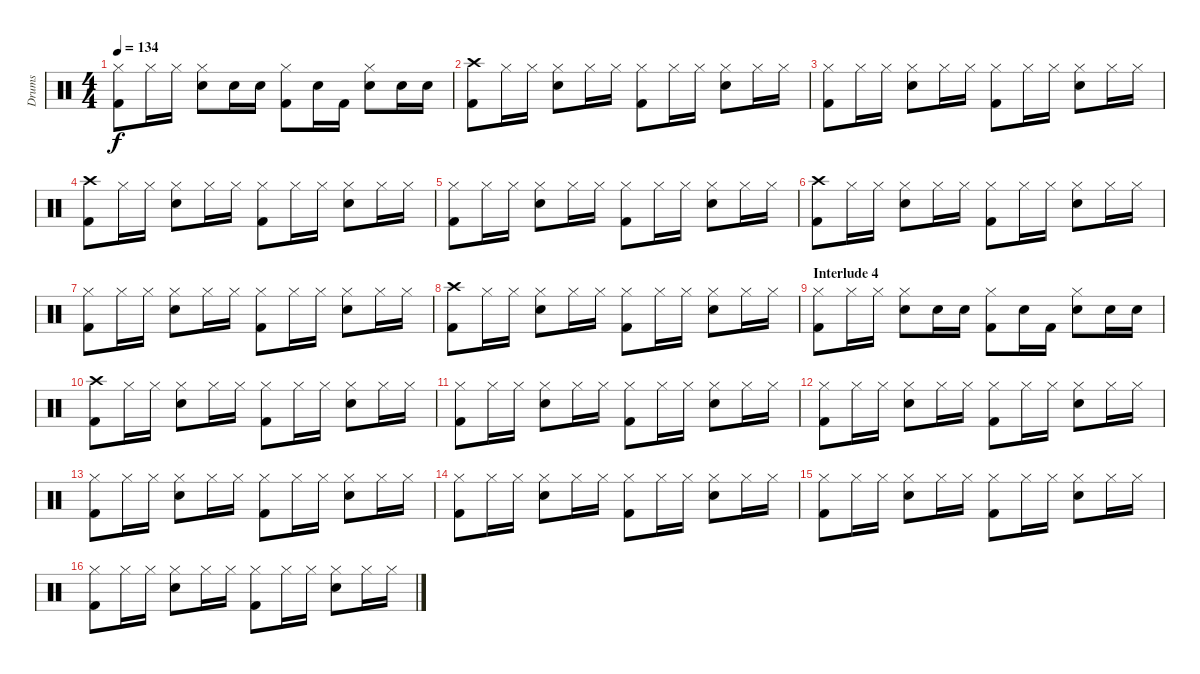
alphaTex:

\track ("Drums" "Drums") {instrument percussion}
\staff {score}
\articulation defaults
\ts (4 4)
\tempo 134
\clef neutral
\ks c
("Kick (hit) 2" "Hi-Hat (closed)").8{dy f} "Hi-Hat (closed)".16 "Hi-Hat (closed)".16 ("Snare (hit) 2" "Hi-Hat (closed)").8 "Snare (hit) 2".16 "Snare (hit) 2".16 ("Kick (hit) 2" "Hi-Hat (closed)").8 "Snare (hit) 2".16 "Kick (hit) 2".16 ("Snare (hit) 2" "Hi-Hat (closed)").8 "Snare (hit) 2".16 "Snare (hit) 2".16 |
("Kick (hit) 2" "Crash high (hit)").8 "Hi-Hat (closed)".16 "Hi-Hat (closed)".16 ("Snare (hit) 2" "Hi-Hat (closed)").8 "Hi-Hat (closed)".16 "Hi-Hat (closed)".16 ("Kick (hit) 2" "Hi-Hat (closed)").8 "Hi-Hat (closed)".16 "Hi-Hat (closed)".16 ("Snare (hit) 2" "Hi-Hat (closed)").8 "Hi-Hat (closed)".16 "Hi-Hat (closed)".16 |
("Kick (hit) 2" "Hi-Hat (closed)").8 "Hi-Hat (closed)".16 "Hi-Hat (closed)".16 ("Snare (hit) 2" "Hi-Hat (closed)").8 "Hi-Hat (closed)".16 "Hi-Hat (closed)".16 ("Kick (hit) 2" "Hi-Hat (closed)").8 "Hi-Hat (closed)".16 "Hi-Hat (closed)".16 ("Snare (hit) 2" "Hi-Hat (closed)").8 "Hi-Hat (closed)".16 "Hi-Hat (closed)".16 |
("Kick (hit) 2" "Crash high (hit)").8 "Hi-Hat (closed)".16 "Hi-Hat (closed)".16 ("Snare (hit) 2" "Hi-Hat (closed)").8 "Hi-Hat (closed)".16 "Hi-Hat (closed)".16 ("Kick (hit) 2" "Hi-Hat (closed)").8 "Hi-Hat (closed)".16 "Hi-Hat (closed)".16 ("Snare (hit) 2" "Hi-Hat (closed)").8 "Hi-Hat (closed)".16 "Hi-Hat (closed)".16 |
("Kick (hit) 2" "Hi-Hat (closed)").8 "Hi-Hat (closed)".16 "Hi-Hat (closed)".16 ("Snare (hit) 2" "Hi-Hat (closed)").8 "Hi-Hat (closed)".16 "Hi-Hat (closed)".16 ("Kick (hit) 2" "Hi-Hat (closed)").8 "Hi-Hat (closed)".16 "Hi-Hat (closed)".16 ("Snare (hit) 2" "Hi-Hat (closed)").8 "Hi-Hat (closed)".16 "Hi-Hat (closed)".16 |
("Kick (hit) 2" "Crash high (hit)").8 "Hi-Hat (closed)".16 "Hi-Hat (closed)".16 ("Snare (hit) 2" "Hi-Hat (closed)").8 "Hi-Hat (closed)".16 "Hi-Hat (closed)".16 ("Kick (hit) 2" "Hi-Hat (closed)").8 "Hi-Hat (closed)".16 "Hi-Hat (closed)".16 ("Snare (hit) 2" "Hi-Hat (closed)").8 "Hi-Hat (closed)".16 "Hi-Hat (closed)".16 |
("Kick (hit) 2" "Hi-Hat (closed)").8 "Hi-Hat (closed)".16 "Hi-Hat (closed)".16 ("Snare (hit) 2" "Hi-Hat (closed)").8 "Hi-Hat (closed)".16 "Hi-Hat (closed)".16 ("Kick (hit) 2" "Hi-Hat (closed)").8 "Hi-Hat (closed)".16 "Hi-Hat (closed)".16 ("Snare (hit) 2" "Hi-Hat (closed)").8 "Hi-Hat (closed)".16 "Hi-Hat (closed)".16 |
("Kick (hit) 2" "Crash high (hit)").8 "Hi-Hat (closed)".16 "Hi-Hat (closed)".16 ("Snare (hit) 2" "Hi-Hat (closed)").8 "Hi-Hat (closed)".16 "Hi-Hat (closed)".16 ("Kick (hit) 2" "Hi-Hat (closed)").8 "Hi-Hat (closed)".16 "Hi-Hat (closed)".16 ("Snare (hit) 2" "Hi-Hat (closed)").8 "Hi-Hat (closed)".16 "Hi-Hat (closed)".16 |
\section ("" "Interlude 4")
("Kick (hit) 2" "Hi-Hat (closed)").8 "Hi-Hat (closed)".16 "Hi-Hat (closed)".16 ("Snare (hit) 2" "Hi-Hat (closed)").8 "Snare (hit) 2".16 "Snare (hit) 2".16 ("Kick (hit) 2" "Hi-Hat (closed)").8 "Snare (hit) 2".16 "Kick (hit) 2".16 ("Snare (hit) 2" "Hi-Hat (closed)").8 "Snare (hit) 2".16 "Snare (hit) 2".16 |
("Kick (hit) 2" "Crash high (hit)").8 "Hi-Hat (closed)".16 "Hi-Hat (closed)".16 ("Snare (hit) 2" "Hi-Hat (closed)").8 "Hi-Hat (closed)".16 "Hi-Hat (closed)".16 ("Kick (hit) 2" "Hi-Hat (closed)").8 "Hi-Hat (closed)".16 "Hi-Hat (closed)".16 ("Snare (hit) 2" "Hi-Hat (closed)").8 "Hi-Hat (closed)".16 "Hi-Hat (closed)".16 |
("Kick (hit) 2" "Hi-Hat (closed)").8 "Hi-Hat (closed)".16 "Hi-Hat (closed)".16 ("Snare (hit) 2" "Hi-Hat (closed)").8 "Hi-Hat (closed)".16 "Hi-Hat (closed)".16 ("Kick (hit) 2" "Hi-Hat (closed)").8 "Hi-Hat (closed)".16 "Hi-Hat (closed)".16 ("Snare (hit) 2" "Hi-Hat (closed)").8 "Hi-Hat (closed)".16 "Hi-Hat (closed)".16 |
("Kick (hit) 2" "Hi-Hat (closed)").8 "Hi-Hat (closed)".16 "Hi-Hat (closed)".16 ("Snare (hit) 2" "Hi-Hat (closed)").8 "Hi-Hat (closed)".16 "Hi-Hat (closed)".16 ("Kick (hit) 2" "Hi-Hat (closed)").8 "Hi-Hat (closed)".16 "Hi-Hat (closed)".16 ("Snare (hit) 2" "Hi-Hat (closed)").8 "Hi-Hat (closed)".16 "Hi-Hat (closed)".16 |
("Kick (hit) 2" "Hi-Hat (closed)").8 "Hi-Hat (closed)".16 "Hi-Hat (closed)".16 ("Snare (hit) 2" "Hi-Hat (closed)").8 "Hi-Hat (closed)".16 "Hi-Hat (closed)".16 ("Kick (hit) 2" "Hi-Hat (closed)").8 "Hi-Hat (closed)".16 "Hi-Hat (closed)".16 ("Snare (hit) 2" "Hi-Hat (closed)").8 "Hi-Hat (closed)".16 "Hi-Hat (closed)".16 |
("Kick (hit) 2" "Hi-Hat (closed)").8 "Hi-Hat (closed)".16 "Hi-Hat (closed)".16 ("Snare (hit) 2" "Hi-Hat (closed)").8 "Hi-Hat (closed)".16 "Hi-Hat (closed)".16 ("Kick (hit) 2" "Hi-Hat (closed)").8 "Hi-Hat (closed)".16 "Hi-Hat (closed)".16 ("Snare (hit) 2" "Hi-Hat (closed)").8 "Hi-Hat (closed)".16 "Hi-Hat (closed)".16 |
("Kick (hit) 2" "Hi-Hat (closed)").8 "Hi-Hat (closed)".16 "Hi-Hat (closed)".16 ("Snare (hit) 2" "Hi-Hat (closed)").8 "Hi-Hat (closed)".16 "Hi-Hat (closed)".16 ("Kick (hit) 2" "Hi-Hat (closed)").8 "Hi-Hat (closed)".16 "Hi-Hat (closed)".16 ("Snare (hit) 2" "Hi-Hat (closed)").8 "Hi-Hat (closed)".16 "Hi-Hat (closed)".16 |
("Kick (hit) 2" "Hi-Hat (closed)").8 "Hi-Hat (closed)".16 "Hi-Hat (closed)".16 ("Snare (hit) 2" "Hi-Hat (closed)").8 "Hi-Hat (closed)".16 "Hi-Hat (closed)".16 ("Kick (hit) 2" "Hi-Hat (closed)").8 "Hi-Hat (closed)".16 "Hi-Hat (closed)".16 ("Snare (hit) 2" "Hi-Hat (closed)").8 "Hi-Hat (closed)".16 "Hi-Hat (closed)".16
